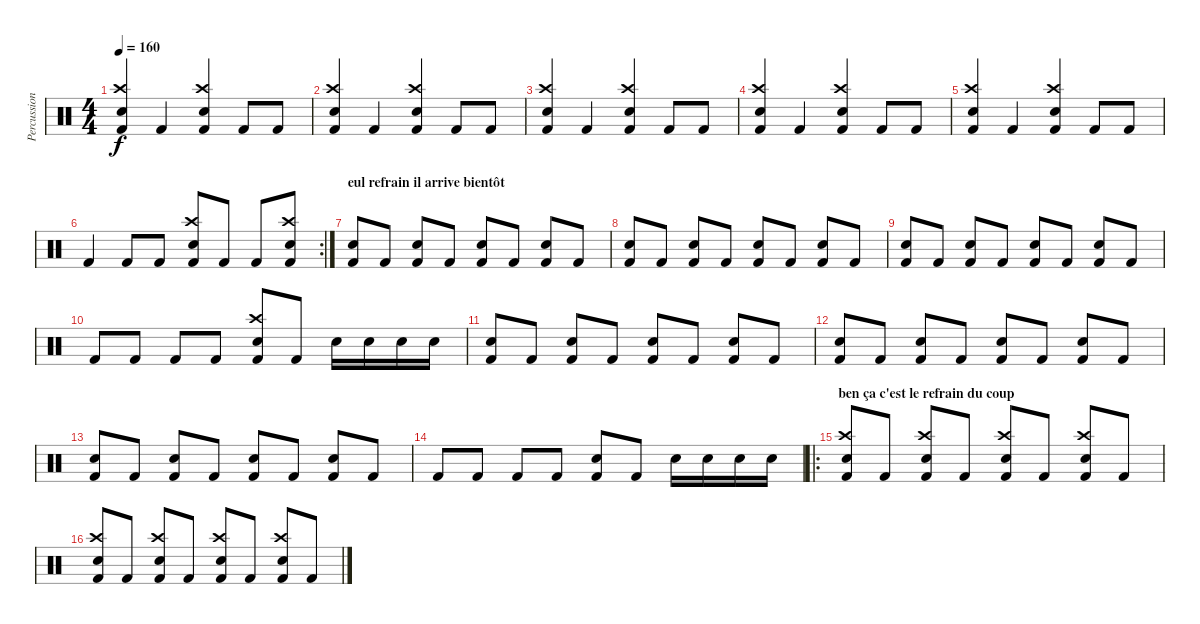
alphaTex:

\track ("Percussions" "Percussion") {instrument percussion}
\staff {score}
\articulation defaults
\ts (4 4)
\tempo 160
\clef neutral
\ks c
("Electric Snare (hit)" "Crash high (hit)" "Kick (hit) 2").4{dy f} "Kick (hit) 2".4 ("Electric Snare (hit)" "Crash high (hit)" "Kick (hit) 2").4 "Kick (hit) 2".8 "Kick (hit) 2".8 |
("Crash high (hit)" "Kick (hit) 2" "Electric Snare (hit)").4 "Kick (hit) 2".4 ("Crash high (hit)" "Kick (hit) 2" "Electric Snare (hit)").4 "Kick (hit) 2".8 "Kick (hit) 2".8 |
("Electric Snare (hit)" "Crash high (hit)" "Kick (hit) 2").4 "Kick (hit) 2".4 ("Electric Snare (hit)" "Crash high (hit)" "Kick (hit) 2").4 "Kick (hit) 2".8 "Kick (hit) 2".8 |
("Electric Snare (hit)" "Crash high (hit)" "Kick (hit) 2").4 "Kick (hit) 2".4 ("Electric Snare (hit)" "Crash high (hit)" "Kick (hit) 2").4 "Kick (hit) 2".8 "Kick (hit) 2".8 |
("Electric Snare (hit)" "Crash high (hit)" "Kick (hit) 2").4 "Kick (hit) 2".4 ("Electric Snare (hit)" "Crash high (hit)" "Kick (hit) 2").4 "Kick (hit) 2".8 "Kick (hit) 2".8 |
\rc 2 "Kick (hit) 2".4 "Kick (hit) 2".8 "Kick (hit) 2".8
("Crash high (hit)" "Kick (hit) 2" "Electric Snare (hit)").8 "Kick (hit) 2".8 "Kick (hit) 2".8 ("Crash high (hit)" "Kick (hit) 2" "Electric Snare (hit)").8 |
\section ("" "eul refrain il arrive bientôt")
("Electric Snare (hit)" "Kick (hit) 2").8 "Kick (hit) 2".8 ("Electric Snare (hit)" "Kick (hit) 2").8 "Kick (hit) 2".8 ("Electric Snare (hit)" "Kick (hit) 2").8 "Kick (hit) 2".8 ("Electric Snare (hit)" "Kick (hit) 2").8 "Kick (hit) 2".8 |
("Electric Snare (hit)" "Kick (hit) 2").8 "Kick (hit) 2".8 ("Electric Snare (hit)" "Kick (hit) 2").8 "Kick (hit) 2".8 ("Electric Snare (hit)" "Kick (hit) 2").8 "Kick (hit) 2".8 ("Electric Snare (hit)" "Kick (hit) 2").8 "Kick (hit) 2".8 |
("Electric Snare (hit)" "Kick (hit) 2").8 "Kick (hit) 2".8 ("Electric Snare (hit)" "Kick (hit) 2").8 "Kick (hit) 2".8 ("Electric Snare (hit)" "Kick (hit) 2").8 "Kick (hit) 2".8 ("Electric Snare (hit)" "Kick (hit) 2").8 "Kick (hit) 2".8 |
"Kick (hit) 2".8 "Kick (hit) 2".8 "Kick (hit) 2".8 "Kick (hit) 2".8 ("Crash high (hit)" "Kick (hit) 2" "Electric Snare (hit)").8 "Kick (hit) 2".8 "Electric Snare (hit)".16 "Electric Snare (hit)".16 "Electric Snare (hit)".16 "Electric Snare (hit)".16 |
("Electric Snare (hit)" "Kick (hit) 2").8 "Kick (hit) 2".8 ("Electric Snare (hit)" "Kick (hit) 2").8 "Kick (hit) 2".8 ("Electric Snare (hit)" "Kick (hit) 2").8 "Kick (hit) 2".8 ("Electric Snare (hit)" "Kick (hit) 2").8 "Kick (hit) 2".8 |
("Electric Snare (hit)" "Kick (hit) 2").8 "Kick (hit) 2".8 ("Electric Snare (hit)" "Kick (hit) 2").8 "Kick (hit) 2".8 ("Electric Snare (hit)" "Kick (hit) 2").8 "Kick (hit) 2".8 ("Electric Snare (hit)" "Kick (hit) 2").8 "Kick (hit) 2".8 |
("Electric Snare (hit)" "Kick (hit) 2").8 "Kick (hit) 2".8 ("Electric Snare (hit)" "Kick (hit) 2").8 "Kick (hit) 2".8 ("Electric Snare (hit)" "Kick (hit) 2").8 "Kick (hit) 2".8 ("Electric Snare (hit)" "Kick (hit) 2").8 "Kick (hit) 2".8 |
"Kick (hit) 2".8 "Kick (hit) 2".8 "Kick (hit) 2".8 "Kick (hit) 2".8 ("Kick (hit) 2" "Electric Snare (hit)").8 "Kick (hit) 2".8 "Electric Snare (hit)".16 "Electric Snare (hit)".16 "Electric Snare (hit)".16 "Electric Snare (hit)".16 |
\ro
\section ("" "ben ça c'est le refrain du coup")
("Electric Snare (hit)" "Crash high (hit)" "Kick (hit) 2").8 "Kick (hit) 2".8 ("Electric Snare (hit)" "Crash high (hit)" "Kick (hit) 2").8 "Kick (hit) 2".8 ("Electric Snare (hit)" "Crash high (hit)" "Kick (hit) 2").8 "Kick (hit) 2".8 ("Electric Snare (hit)" "Crash high (hit)" "Kick (hit) 2").8 "Kick (hit) 2".8 |
("Electric Snare (hit)" "Crash high (hit)" "Kick (hit) 2").8 "Kick (hit) 2".8 ("Electric Snare (hit)" "Crash high (hit)" "Kick (hit) 2").8 "Kick (hit) 2".8 ("Electric Snare (hit)" "Crash high (hit)" "Kick (hit) 2").8 "Kick (hit) 2".8 ("Electric Snare (hit)" "Crash high (hit)" "Kick (hit) 2").8 "Kick (hit) 2".8
